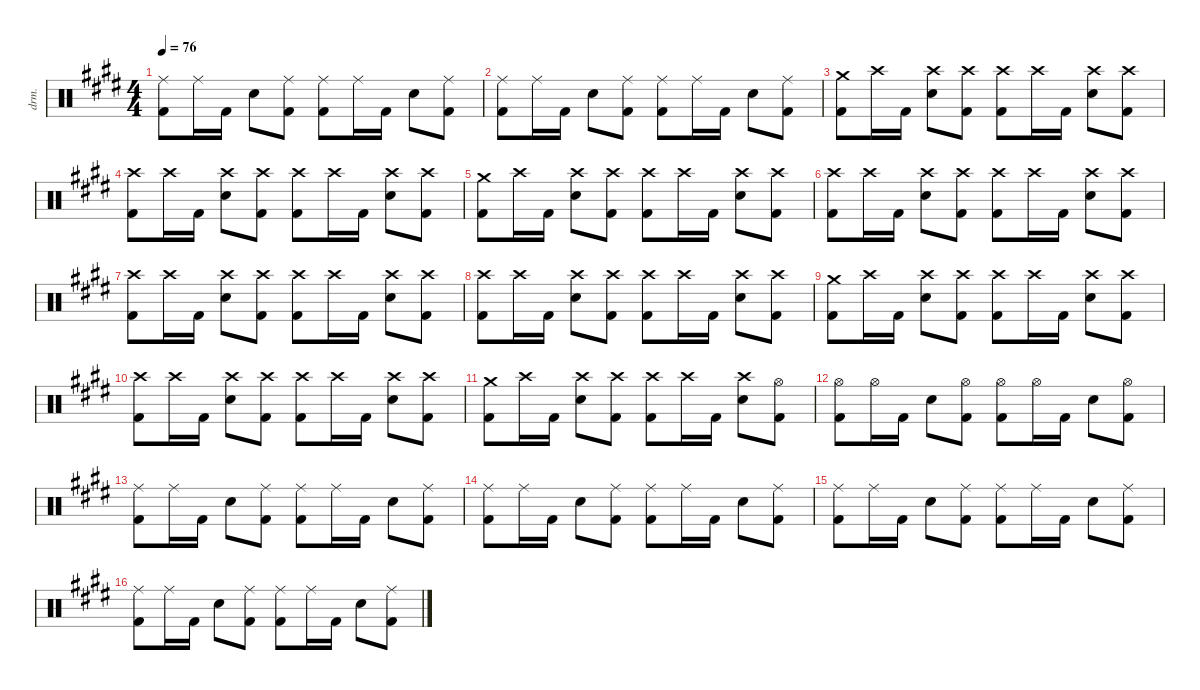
\defaultSystemsLayout 4
\hideDynamics
\bracketExtendMode nobrackets
\otherSystemsTrackNameOrientation horizontal
\track ("Drums" "drm.") {instrument percussion}
\staff {score}
\articulation defaults
\ts (4 4)
\tempo 76
\clef neutral
\ks e
("Ride (middle)"{acc forcenatural} "Kick (hit) 2"{acc forcenatural}).8{dy f beam Down} "Ride (middle)"{acc forcenatural}.16{beam Down} "Kick (hit) 2"{acc forcenatural}.16{beam Down} "Snare (hit) 2"{acc forcenatural}.8{beam Down} ("Ride (middle)"{acc forcenatural} "Kick (hit) 2"{acc forcenatural}).8{beam Down} ("Ride (middle)"{acc forcenatural} "Kick (hit) 2"{acc forcenatural}).8{beam Down} "Ride (middle)"{acc forcenatural}.16{beam Down} "Kick (hit) 2"{acc forcenatural}.16{beam Down} "Snare (hit) 2"{acc forcenatural}.8{beam Down} ("Ride (middle)"{acc forcenatural} "Kick (hit) 2"{acc forcenatural}).8{beam Down} |
("Ride (middle)"{acc forcenatural} "Kick (hit) 2"{acc forcenatural}).8{beam Down} "Ride (middle)"{acc forcenatural}.16{beam Down} "Kick (hit) 2"{acc forcenatural}.16{beam Down} "Snare (hit) 2"{acc forcenatural}.8{beam Down} ("Ride (middle)"{acc forcenatural} "Kick (hit) 2"{acc forcenatural}).8{beam Down} ("Ride (middle)"{acc forcenatural} "Kick (hit) 2"{acc forcenatural}).8{beam Down} "Ride (middle)"{acc forcenatural}.16{beam Down} "Kick (hit) 2"{acc forcenatural}.16{beam Down} "Snare (hit) 2"{acc forcenatural}.8{beam Down} ("Ride (middle)"{acc forcenatural} "Kick (hit) 2"{acc forcenatural}).8{beam Down} |
("Crash medium (hit)"{acc forcenatural} "Kick (hit) 2"{acc forcenatural}).8{beam Down} "Crash high (hit)"{acc forcenatural}.16{dy mf beam Down} "Kick (hit) 2"{acc forcenatural}.16{dy f beam Down} ("Crash high (hit)"{acc forcenatural} "Snare (hit) 2"{acc forcenatural}).8{dy mf beam Down} ("Crash high (hit)"{acc forcenatural} "Kick (hit) 2"{acc forcenatural}).8{beam Down} ("Crash high (hit)"{acc forcenatural} "Kick (hit) 2"{acc forcenatural}).8{beam Down} "Crash high (hit)"{acc forcenatural}.16{beam Down} "Kick (hit) 2"{acc forcenatural}.16{dy f beam Down} ("Crash high (hit)"{acc forcenatural} "Snare (hit) 2"{acc forcenatural}).8{dy mf beam Down} ("Crash high (hit)"{acc forcenatural} "Kick (hit) 2"{acc forcenatural}).8{beam Down} |
("Crash high (hit)"{acc forcenatural} "Kick (hit) 2"{acc forcenatural}).8{beam Down} "Crash high (hit)"{acc forcenatural}.16{beam Down} "Kick (hit) 2"{acc forcenatural}.16{dy f beam Down} ("Crash high (hit)"{acc forcenatural} "Snare (hit) 2"{acc forcenatural}).8{dy mf beam Down} ("Crash high (hit)"{acc forcenatural} "Kick (hit) 2"{acc forcenatural}).8{beam Down} ("Crash high (hit)"{acc forcenatural} "Kick (hit) 2"{acc forcenatural}).8{beam Down} "Crash high (hit)"{acc forcenatural}.16{beam Down} "Kick (hit) 2"{acc forcenatural}.16{dy f beam Down} ("Crash high (hit)"{acc forcenatural} "Snare (hit) 2"{acc forcenatural}).8{dy mf beam Down} ("Crash high (hit)"{acc forcenatural} "Kick (hit) 2"{acc forcenatural}).8{beam Down} |
("Crash medium (hit)"{acc forcenatural} "Kick (hit) 2"{acc forcenatural}).8{dy f beam Down} "Crash high (hit)"{acc forcenatural}.16{dy mf beam Down} "Kick (hit) 2"{acc forcenatural}.16{dy f beam Down} ("Crash high (hit)"{acc forcenatural} "Snare (hit) 2"{acc forcenatural}).8{dy mf beam Down} ("Crash high (hit)"{acc forcenatural} "Kick (hit) 2"{acc forcenatural}).8{beam Down} ("Crash high (hit)"{acc forcenatural} "Kick (hit) 2"{acc forcenatural}).8{beam Down} "Crash high (hit)"{acc forcenatural}.16{beam Down} "Kick (hit) 2"{acc forcenatural}.16{dy f beam Down} ("Crash high (hit)"{acc forcenatural} "Snare (hit) 2"{acc forcenatural}).8{dy mf beam Down} ("Crash high (hit)"{acc forcenatural} "Kick (hit) 2"{acc forcenatural}).8{beam Down} |
("Crash high (hit)"{acc forcenatural} "Kick (hit) 2"{acc forcenatural}).8{beam Down} "Crash high (hit)"{acc forcenatural}.16{dy mp beam Down} "Kick (hit) 2"{acc forcenatural}.16{dy f beam Down} ("Crash high (hit)"{acc forcenatural} "Snare (hit) 2"{acc forcenatural}).8{dy mf beam Down} ("Crash high (hit)"{acc forcenatural} "Kick (hit) 2"{acc forcenatural}).8{beam Down} ("Crash high (hit)"{acc forcenatural} "Kick (hit) 2"{acc forcenatural}).8{beam Down} "Crash high (hit)"{acc forcenatural}.16{beam Down} "Kick (hit) 2"{acc forcenatural}.16{dy f beam Down} ("Crash high (hit)"{acc forcenatural} "Snare (hit) 2"{acc forcenatural}).8{dy mf beam Down} ("Crash high (hit)"{acc forcenatural} "Kick (hit) 2"{acc forcenatural}).8{beam Down} |
("Crash high (hit)"{acc forcenatural} "Kick (hit) 2"{acc forcenatural}).8{beam Down} "Crash high (hit)"{acc forcenatural}.16{dy mp beam Down} "Kick (hit) 2"{acc forcenatural}.16{dy f beam Down} ("Crash high (hit)"{acc forcenatural} "Snare (hit) 2"{acc forcenatural}).8{dy mf beam Down} ("Crash high (hit)"{acc forcenatural} "Kick (hit) 2"{acc forcenatural}).8{beam Down} ("Crash high (hit)"{acc forcenatural} "Kick (hit) 2"{acc forcenatural}).8{beam Down} "Crash high (hit)"{acc forcenatural}.16{beam Down} "Kick (hit) 2"{acc forcenatural}.16{dy f beam Down} ("Crash high (hit)"{acc forcenatural} "Snare (hit) 2"{acc forcenatural}).8{dy mf beam Down} ("Crash high (hit)"{acc forcenatural} "Kick (hit) 2"{acc forcenatural}).8{beam Down} |
("Crash high (hit)"{acc forcenatural} "Kick (hit) 2"{acc forcenatural}).8{beam Down} "Crash high (hit)"{acc forcenatural}.16{beam Down} "Kick (hit) 2"{acc forcenatural}.16{dy f beam Down} ("Crash high (hit)"{acc forcenatural} "Snare (hit) 2"{acc forcenatural}).8{dy mf beam Down} ("Crash high (hit)"{acc forcenatural} "Kick (hit) 2"{acc forcenatural}).8{beam Down} ("Crash high (hit)"{acc forcenatural} "Kick (hit) 2"{acc forcenatural}).8{beam Down} "Crash high (hit)"{acc forcenatural}.16{beam Down} "Kick (hit) 2"{acc forcenatural}.16{dy f beam Down} ("Crash high (hit)"{acc forcenatural} "Snare (hit) 2"{acc forcenatural}).8{dy mf beam Down} ("Crash high (hit)"{acc forcenatural} "Kick (hit) 2"{acc forcenatural}).8{beam Down} |
("Crash medium (hit)"{acc forcenatural} "Kick (hit) 2"{acc forcenatural}).8{dy f beam Down} "Crash high (hit)"{acc forcenatural}.16{dy mf beam Down} "Kick (hit) 2"{acc forcenatural}.16{dy f beam Down} ("Crash high (hit)"{acc forcenatural} "Snare (hit) 2"{acc forcenatural}).8{dy mf beam Down} ("Crash high (hit)"{acc forcenatural} "Kick (hit) 2"{acc forcenatural}).8{beam Down} ("Crash high (hit)"{acc forcenatural} "Kick (hit) 2"{acc forcenatural}).8{beam Down} "Crash high (hit)"{acc forcenatural}.16{beam Down} "Kick (hit) 2"{acc forcenatural}.16{dy f beam Down} ("Crash high (hit)"{acc forcenatural} "Snare (hit) 2"{acc forcenatural}).8{dy mf beam Down} ("Crash high (hit)"{acc forcenatural} "Kick (hit) 2"{acc forcenatural}).8{beam Down} |
("Crash high (hit)"{acc forcenatural} "Kick (hit) 2"{acc forcenatural}).8{dy f beam Down} "Crash high (hit)"{acc forcenatural}.16{beam Down} "Kick (hit) 2"{acc forcenatural}.16{beam Down} ("Crash high (hit)"{acc forcenatural} "Snare (hit) 2"{acc forcenatural}).8{beam Down} ("Crash high (hit)"{acc forcenatural} "Kick (hit) 2"{acc forcenatural}).8{beam Down} ("Crash high (hit)"{acc forcenatural} "Kick (hit) 2"{acc forcenatural}).8{beam Down} "Crash high (hit)"{acc forcenatural}.16{beam Down} "Kick (hit) 2"{acc forcenatural}.16{beam Down} ("Crash high (hit)"{acc forcenatural} "Snare (hit) 2"{acc forcenatural}).8{beam Down} ("Crash high (hit)"{acc forcenatural} "Kick (hit) 2"{acc forcenatural}).8{beam Down} |
("Crash medium (hit)"{acc forcenatural} "Kick (hit) 2"{acc forcenatural}).8{beam Down} "Crash high (hit)"{acc forcenatural}.16{beam Down} "Kick (hit) 2"{acc forcenatural}.16{beam Down} ("Crash high (hit)"{acc forcenatural} "Snare (hit) 2"{acc forcenatural}).8{beam Down} ("Crash high (hit)"{acc forcenatural} "Kick (hit) 2"{acc forcenatural}).8{beam Down} ("Crash high (hit)"{acc forcenatural} "Kick (hit) 2"{acc forcenatural}).8{beam Down} "Crash high (hit)"{acc forcenatural}.16{beam Down} "Kick (hit) 2"{acc forcenatural}.16{beam Down} ("Crash high (hit)"{acc forcenatural} "Snare (hit) 2"{acc forcenatural}).8{beam Down} ("Hi-Hat (open)"{acc forcenatural} "Kick (hit) 2"{acc forcenatural}).8{beam Down} |
("Hi-Hat (open)"{acc forcenatural} "Kick (hit) 2"{acc forcenatural}).8{beam Down} "Hi-Hat (open)"{acc forcenatural}.16{beam Down} "Kick (hit) 2"{acc forcenatural}.16{beam Down} "Snare (hit) 2"{acc forcenatural}.8{beam Down} ("Hi-Hat (open)"{acc forcenatural} "Kick (hit) 2"{acc forcenatural}).8{beam Down} ("Hi-Hat (open)"{acc forcenatural} "Kick (hit) 2"{acc forcenatural}).8{beam Down} "Hi-Hat (open)"{acc forcenatural}.16{beam Down} "Kick (hit) 2"{acc forcenatural}.16{beam Down} "Snare (hit) 2"{acc forcenatural}.8{beam Down} ("Hi-Hat (open)"{acc forcenatural} "Kick (hit) 2"{acc forcenatural}).8{beam Down} |
("Ride (middle)"{acc forcenatural} "Kick (hit) 2"{acc forcenatural}).8{beam Down} "Ride (middle)"{acc forcenatural}.16{beam Down} "Kick (hit) 2"{acc forcenatural}.16{beam Down} "Snare (hit) 2"{acc forcenatural}.8{beam Down} ("Ride (middle)"{acc forcenatural} "Kick (hit) 2"{acc forcenatural}).8{beam Down} ("Ride (middle)"{acc forcenatural} "Kick (hit) 2"{acc forcenatural}).8{beam Down} "Ride (middle)"{acc forcenatural}.16{beam Down} "Kick (hit) 2"{acc forcenatural}.16{beam Down} "Snare (hit) 2"{acc forcenatural}.8{beam Down} ("Ride (middle)"{acc forcenatural} "Kick (hit) 2"{acc forcenatural}).8{beam Down} |
("Ride (middle)"{acc forcenatural} "Kick (hit) 2"{acc forcenatural}).8{beam Down} "Ride (middle)"{acc forcenatural}.16{beam Down} "Kick (hit) 2"{acc forcenatural}.16{beam Down} "Snare (hit) 2"{acc forcenatural}.8{beam Down} ("Ride (middle)"{acc forcenatural} "Kick (hit) 2"{acc forcenatural}).8{beam Down} ("Ride (middle)"{acc forcenatural} "Kick (hit) 2"{acc forcenatural}).8{beam Down} "Ride (middle)"{acc forcenatural}.16{beam Down} "Kick (hit) 2"{acc forcenatural}.16{beam Down} "Snare (hit) 2"{acc forcenatural}.8{beam Down} ("Ride (middle)"{acc forcenatural} "Kick (hit) 2"{acc forcenatural}).8{beam Down} |
("Ride (middle)"{acc forcenatural} "Kick (hit) 2"{acc forcenatural}).8{beam Down} "Ride (middle)"{acc forcenatural}.16{beam Down} "Kick (hit) 2"{acc forcenatural}.16{beam Down} "Snare (hit) 2"{acc forcenatural}.8{beam Down} ("Ride (middle)"{acc forcenatural} "Kick (hit) 2"{acc forcenatural}).8{beam Down} ("Ride (middle)"{acc forcenatural} "Kick (hit) 2"{acc forcenatural}).8{beam Down} "Ride (middle)"{acc forcenatural}.16{beam Down} "Kick (hit) 2"{acc forcenatural}.16{beam Down} "Snare (hit) 2"{acc forcenatural}.8{beam Down} ("Ride (middle)"{acc forcenatural} "Kick (hit) 2"{acc forcenatural}).8{beam Down} |
("Ride (middle)"{acc forcenatural} "Kick (hit) 2"{acc forcenatural}).8{beam Down} "Ride (middle)"{acc forcenatural}.16{beam Down} "Kick (hit) 2"{acc forcenatural}.16{beam Down} "Snare (hit) 2"{acc forcenatural}.8{beam Down} ("Ride (middle)"{acc forcenatural} "Kick (hit) 2"{acc forcenatural}).8{beam Down} ("Ride (middle)"{acc forcenatural} "Kick (hit) 2"{acc forcenatural}).8{beam Down} "Ride (middle)"{acc forcenatural}.16{beam Down} "Kick (hit) 2"{acc forcenatural}.16{beam Down} "Snare (hit) 2"{acc forcenatural}.8{beam Down} ("Ride (middle)"{acc forcenatural} "Kick (hit) 2"{acc forcenatural}).8{beam Down}
